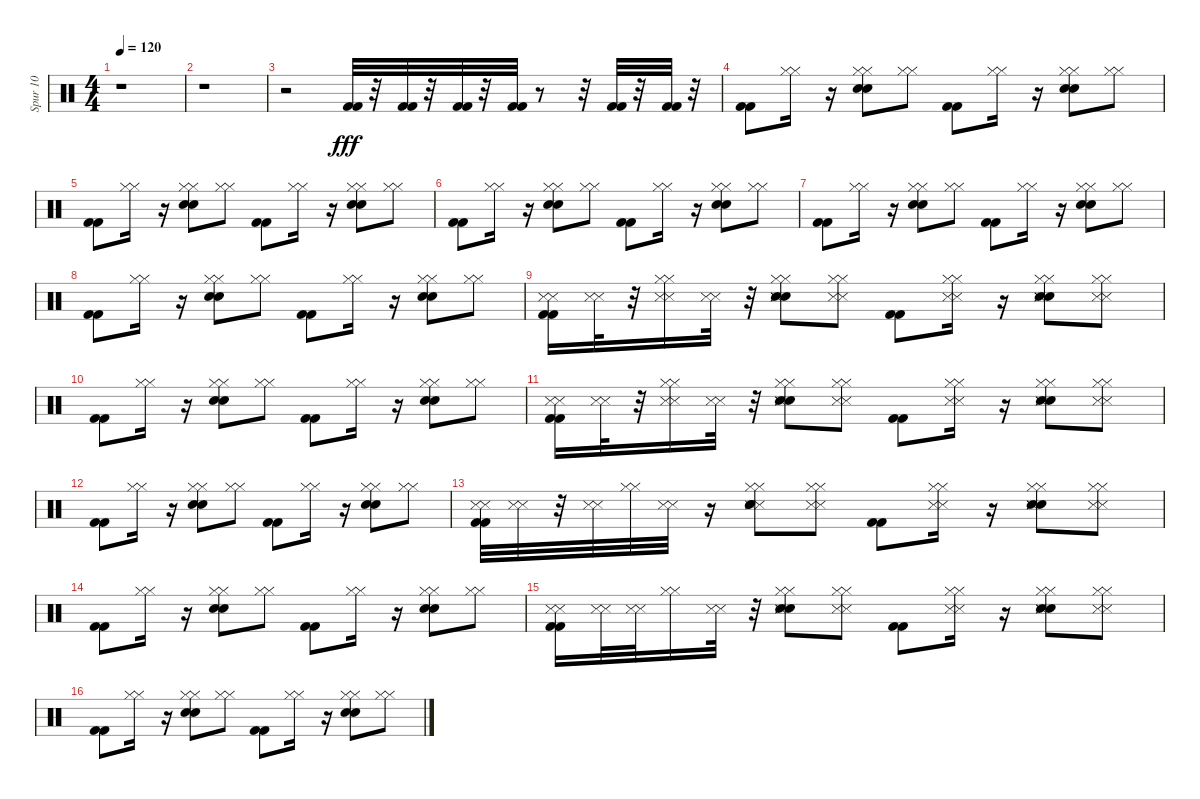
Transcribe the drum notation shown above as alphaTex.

\track ("Spur 10" "Spur 10") {instrument percussion}
\staff {score}
\articulation defaults
\ts (4 4)
\tempo 120
\clef neutral
\ks c
r.1{dy fff} |
r.1 |
r.2 ("Kick (hit) 2" "Kick (hit) 2").32{volume 12} r.32 ("Kick (hit) 2" "Kick (hit) 2").32 r.32 ("Kick (hit) 2" "Kick (hit) 2").32 r.32 ("Kick (hit) 2" "Kick (hit) 2").32 r.8 r.32 ("Kick (hit) 2" "Kick (hit) 2").32 r.32 ("Kick (hit) 2" "Kick (hit) 2").32{volume 16} r.32 |
("Kick (hit) 2" "Kick (hit) 2").8 ("Hi-Hat (closed)" "Hi-Hat (closed)").16{volume 12} r.16 ("Snare (hit) 2" "Snare (hit) 2" "Hi-Hat (closed)" "Hi-Hat (closed)").8 ("Hi-Hat (closed)" "Hi-Hat (closed)").8 ("Kick (hit) 2" "Kick (hit) 2").8 ("Hi-Hat (closed)" "Hi-Hat (closed)").16 r.16 ("Hi-Hat (closed)" "Snare (hit) 2" "Hi-Hat (closed)" "Snare (hit) 2").8 ("Hi-Hat (closed)" "Hi-Hat (closed)").8 |
("Kick (hit) 2" "Kick (hit) 2").8 ("Hi-Hat (closed)" "Hi-Hat (closed)").16 r.16 ("Snare (hit) 2" "Hi-Hat (closed)" "Snare (hit) 2" "Hi-Hat (closed)").8 ("Hi-Hat (closed)" "Hi-Hat (closed)").8 ("Kick (hit) 2" "Kick (hit) 2").8 ("Hi-Hat (closed)" "Hi-Hat (closed)").16 r.16 ("Hi-Hat (closed)" "Snare (hit) 2" "Hi-Hat (closed)" "Snare (hit) 2").8 ("Hi-Hat (closed)" "Hi-Hat (closed)").8 |
("Kick (hit) 2" "Kick (hit) 2").8 ("Hi-Hat (closed)" "Hi-Hat (closed)").16 r.16 ("Snare (hit) 2" "Hi-Hat (closed)" "Snare (hit) 2" "Hi-Hat (closed)").8 ("Hi-Hat (closed)" "Hi-Hat (closed)").8 ("Kick (hit) 2" "Kick (hit) 2").8 ("Hi-Hat (closed)" "Hi-Hat (closed)").16 r.16 ("Snare (hit) 2" "Snare (hit) 2" "Hi-Hat (closed)" "Hi-Hat (closed)").8 ("Hi-Hat (closed)" "Hi-Hat (closed)").8 |
("Kick (hit) 2" "Kick (hit) 2").8 ("Hi-Hat (closed)" "Hi-Hat (closed)").16 r.16 ("Hi-Hat (closed)" "Snare (hit) 2" "Hi-Hat (closed)" "Snare (hit) 2").8 ("Hi-Hat (closed)" "Hi-Hat (closed)").8 ("Kick (hit) 2" "Kick (hit) 2").8 ("Hi-Hat (closed)" "Hi-Hat (closed)").16 r.16 ("Hi-Hat (closed)" "Snare (hit) 2" "Hi-Hat (closed)" "Snare (hit) 2").8 ("Hi-Hat (closed)" "Hi-Hat (closed)").8 |
("Kick (hit) 2" "Kick (hit) 2").8 ("Hi-Hat (closed)" "Hi-Hat (closed)").16 r.16 ("Hi-Hat (closed)" "Snare (hit) 2" "Hi-Hat (closed)" "Snare (hit) 2").8 ("Hi-Hat (closed)" "Hi-Hat (closed)").8 ("Kick (hit) 2" "Kick (hit) 2").8 ("Hi-Hat (closed)" "Hi-Hat (closed)").16 r.16 ("Snare (hit) 2" "Hi-Hat (closed)" "Snare (hit) 2" "Hi-Hat (closed)").8 ("Hi-Hat (closed)" "Hi-Hat (closed)").8 |
("Snare (side stick) 3" "Snare (side stick) 3" "Kick (hit) 2" "Kick (hit) 2").16 ("Snare (side stick) 3" "Snare (side stick) 3").32 r.32 ("Hi-Hat (closed)" "Snare (side stick) 3" "Hi-Hat (closed)" "Snare (side stick) 3").16 ("Snare (side stick) 3" "Snare (side stick) 3").32 r.32 ("Hi-Hat (closed)" "Snare (hit) 2" "Hi-Hat (closed)" "Snare (hit) 2" "Snare (side stick) 3" "Snare (side stick) 3").8 ("Snare (side stick) 3" "Hi-Hat (closed)" "Snare (side stick) 3" "Hi-Hat (closed)").8 ("Kick (hit) 2" "Kick (hit) 2").8 ("Hi-Hat (closed)" "Snare (side stick) 3" "Hi-Hat (closed)" "Snare (side stick) 3").16 r.16 ("Hi-Hat (closed)" "Hi-Hat (closed)" "Snare (hit) 2" "Snare (hit) 2" "Snare (side stick) 3" "Snare (side stick) 3").8 ("Hi-Hat (closed)" "Snare (side stick) 3" "Hi-Hat (closed)" "Snare (side stick) 3").8 |
("Kick (hit) 2" "Kick (hit) 2").8 ("Hi-Hat (closed)" "Hi-Hat (closed)").16 r.16 ("Hi-Hat (closed)" "Hi-Hat (closed)" "Snare (hit) 2" "Snare (hit) 2").8 ("Hi-Hat (closed)" "Hi-Hat (closed)").8 ("Kick (hit) 2" "Kick (hit) 2").8 ("Hi-Hat (closed)" "Hi-Hat (closed)").16 r.16 ("Hi-Hat (closed)" "Snare (hit) 2" "Hi-Hat (closed)" "Snare (hit) 2").8 ("Hi-Hat (closed)" "Hi-Hat (closed)").8 |
("Snare (side stick) 3" "Snare (side stick) 3" "Kick (hit) 2" "Kick (hit) 2").16 ("Snare (side stick) 3" "Snare (side stick) 3").32 r.32 ("Snare (side stick) 3" "Snare (side stick) 3" "Hi-Hat (closed)" "Hi-Hat (closed)").16 ("Snare (side stick) 3" "Snare (side stick) 3").32 r.32 ("Snare (hit) 2" "Hi-Hat (closed)" "Snare (hit) 2" "Hi-Hat (closed)" "Snare (side stick) 3" "Snare (side stick) 3").8 ("Snare (side stick) 3" "Hi-Hat (closed)" "Snare (side stick) 3" "Hi-Hat (closed)").8 ("Kick (hit) 2" "Kick (hit) 2").8 ("Hi-Hat (closed)" "Hi-Hat (closed)" "Snare (side stick) 3" "Snare (side stick) 3").16 r.16 ("Hi-Hat (closed)" "Snare (hit) 2" "Hi-Hat (closed)" "Snare (hit) 2" "Snare (side stick) 3" "Snare (side stick) 3").8 ("Hi-Hat (closed)" "Hi-Hat (closed)" "Snare (side stick) 3" "Snare (side stick) 3").8 |
("Kick (hit) 2" "Kick (hit) 2").8 ("Hi-Hat (closed)" "Hi-Hat (closed)").16 r.16 ("Hi-Hat (closed)" "Hi-Hat (closed)" "Snare (hit) 2" "Snare (hit) 2").8 ("Hi-Hat (closed)" "Hi-Hat (closed)").8 ("Kick (hit) 2" "Kick (hit) 2").8 ("Hi-Hat (closed)" "Hi-Hat (closed)").16 r.16 ("Snare (hit) 2" "Hi-Hat (closed)" "Snare (hit) 2" "Hi-Hat (closed)").8 ("Hi-Hat (closed)" "Hi-Hat (closed)").8 |
("Snare (side stick) 3" "Snare (side stick) 3" "Kick (hit) 2" "Kick (hit) 2").32 ("Snare (side stick) 3" "Snare (side stick) 3").32 r.32 ("Snare (side stick) 3" "Snare (side stick) 3").32 ("Hi-Hat (closed)" "Hi-Hat (closed)").32 ("Snare (side stick) 3" "Snare (side stick) 3").32 r.16 ("Snare (side stick) 3" "Snare (side stick) 3" "Snare (hit) 2" "Snare (hit) 2" "Hi-Hat (closed)" "Hi-Hat (closed)").8 ("Hi-Hat (closed)" "Hi-Hat (closed)" "Snare (side stick) 3" "Snare (side stick) 3").8 ("Kick (hit) 2" "Kick (hit) 2").8 ("Hi-Hat (closed)" "Hi-Hat (closed)" "Snare (side stick) 3" "Snare (side stick) 3").16 r.16 ("Hi-Hat (closed)" "Hi-Hat (closed)" "Snare (hit) 2" "Snare (hit) 2" "Snare (side stick) 3" "Snare (side stick) 3").8 ("Hi-Hat (closed)" "Hi-Hat (closed)" "Snare (side stick) 3" "Snare (side stick) 3").8 |
("Kick (hit) 2" "Kick (hit) 2").8 ("Hi-Hat (closed)" "Hi-Hat (closed)").16 r.16 ("Snare (hit) 2" "Hi-Hat (closed)" "Snare (hit) 2" "Hi-Hat (closed)").8 ("Hi-Hat (closed)" "Hi-Hat (closed)").8 ("Kick (hit) 2" "Kick (hit) 2").8 ("Hi-Hat (closed)" "Hi-Hat (closed)").16 r.16 ("Hi-Hat (closed)" "Hi-Hat (closed)" "Snare (hit) 2" "Snare (hit) 2").8 ("Hi-Hat (closed)" "Hi-Hat (closed)").8 |
("Snare (side stick) 3" "Snare (side stick) 3" "Kick (hit) 2" "Kick (hit) 2").16 ("Snare (side stick) 3" "Snare (side stick) 3").32 ("Snare (side stick) 3" "Snare (side stick) 3").32 ("Hi-Hat (closed)" "Hi-Hat (closed)").16 ("Snare (side stick) 3" "Snare (side stick) 3").32 r.32 ("Snare (hit) 2" "Hi-Hat (closed)" "Snare (hit) 2" "Hi-Hat (closed)" "Snare (side stick) 3" "Snare (side stick) 3").8 ("Hi-Hat (closed)" "Hi-Hat (closed)" "Snare (side stick) 3" "Snare (side stick) 3").8 ("Kick (hit) 2" "Kick (hit) 2").8 ("Hi-Hat (closed)" "Hi-Hat (closed)" "Snare (side stick) 3" "Snare (side stick) 3").16 r.16 ("Snare (hit) 2" "Hi-Hat (closed)" "Snare (hit) 2" "Hi-Hat (closed)" "Snare (side stick) 3" "Snare (side stick) 3").8 ("Hi-Hat (closed)" "Hi-Hat (closed)" "Snare (side stick) 3" "Snare (side stick) 3").8 |
("Kick (hit) 2" "Kick (hit) 2").8 ("Hi-Hat (closed)" "Hi-Hat (closed)").16 r.16 ("Snare (hit) 2" "Hi-Hat (closed)" "Snare (hit) 2" "Hi-Hat (closed)").8 ("Hi-Hat (closed)" "Hi-Hat (closed)").8 ("Kick (hit) 2" "Kick (hit) 2").8 ("Hi-Hat (closed)" "Hi-Hat (closed)").16 r.16 ("Hi-Hat (closed)" "Snare (hit) 2" "Hi-Hat (closed)" "Snare (hit) 2").8 ("Hi-Hat (closed)" "Hi-Hat (closed)").8
